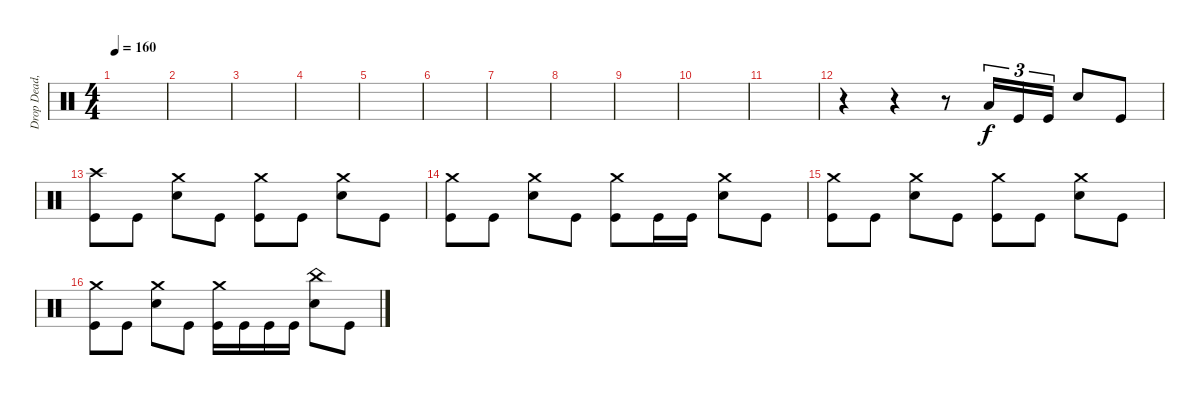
\track ("Drop Dead, Johnny" "Drop Dead,") {instrument percussion}
\staff {score}
\articulation defaults
\ts (4 4)
\tempo 160
\clef neutral
\ks c
|
|
|
|
|
|
|
|
|
|
|
r.4 r.4 r.8 "Low Floor Tom (hit)".16{tu (3 2)} "Kick (hit)".16{tu (3 2)} "Kick (hit)".16{tu (3 2)} "Electric Snare (hit)".8 "Kick (hit)".8 |
("Crash high (hit)" "Kick (hit)").8 "Kick (hit)".8 ("Crash medium (hit)" "Electric Snare (hit)").8 "Kick (hit)".8 ("Crash medium (hit)" "Kick (hit)").8 "Kick (hit)".8 ("Crash medium (hit)" "Electric Snare (hit)").8 "Kick (hit)".8 |
("Crash medium (hit)" "Kick (hit)").8 "Kick (hit)".8 ("Crash medium (hit)" "Electric Snare (hit)").8 "Kick (hit)".8 ("Crash medium (hit)" "Kick (hit)").8 "Kick (hit)".16 "Kick (hit)".16 ("Crash medium (hit)" "Electric Snare (hit)").8 "Kick (hit)".8 |
("Crash medium (hit)" "Kick (hit)").8 "Kick (hit)".8 ("Crash medium (hit)" "Electric Snare (hit)").8 "Kick (hit)".8 ("Crash medium (hit)" "Kick (hit)").8 "Kick (hit)".8 ("Crash medium (hit)" "Electric Snare (hit)").8 "Kick (hit)".8 |
("Crash medium (hit)" "Kick (hit)").8 "Kick (hit)".8 ("Crash medium (hit)" "Electric Snare (hit)").8 "Kick (hit)".8 ("Crash medium (hit)" "Kick (hit)").16 "Kick (hit)".16 "Kick (hit)".16 "Kick (hit)".16 ("China (hit)" "Electric Snare (hit)").8 "Kick (hit)".8
